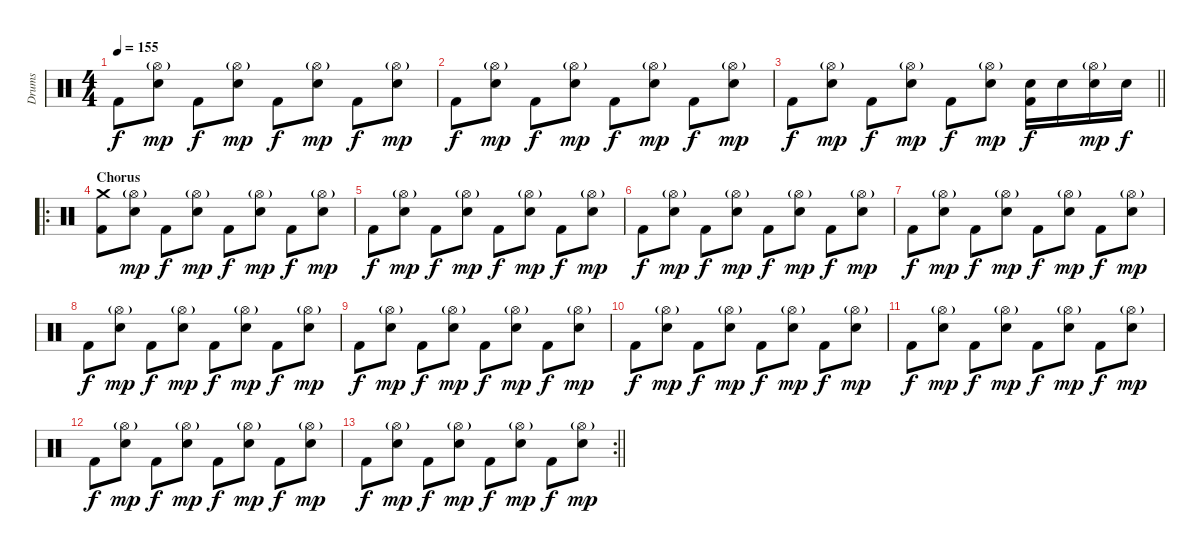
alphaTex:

\track ("Drums" "Drums") {instrument percussion}
\staff {score}
\articulation defaults
\ts (4 4)
\tempo 155
\clef neutral
\ks c "Kick (hit) 2".8{dy f}
("Snare (hit) 2" "Hi-Hat (open)"{g}).8{dy mp} "Kick (hit) 2".8{dy f} ("Snare (hit) 2" "Hi-Hat (open)"{g}).8{dy mp} "Kick (hit) 2".8{dy f} ("Snare (hit) 2" "Hi-Hat (open)"{g}).8{dy mp} "Kick (hit) 2".8{dy f} ("Snare (hit) 2" "Hi-Hat (open)"{g}).8{dy mp} |
"Kick (hit) 2".8{dy f} ("Snare (hit) 2" "Hi-Hat (open)"{g}).8{dy mp} "Kick (hit) 2".8{dy f} ("Snare (hit) 2" "Hi-Hat (open)"{g}).8{dy mp} "Kick (hit) 2".8{dy f} ("Snare (hit) 2" "Hi-Hat (open)"{g}).8{dy mp} "Kick (hit) 2".8{dy f} ("Snare (hit) 2" "Hi-Hat (open)"{g}).8{dy mp} |
\barLineRight lightlight "Kick (hit) 2".8{dy f}
("Snare (hit) 2" "Hi-Hat (open)"{g}).8{dy mp} "Kick (hit) 2".8{dy f} ("Snare (hit) 2" "Hi-Hat (open)"{g}).8{dy mp} "Kick (hit) 2".8{dy f} ("Snare (hit) 2" "Hi-Hat (open)"{g}).8{dy mp} ("Kick (hit) 2" "Snare (hit) 2").16{dy f} "Snare (hit) 2".16 ("Snare (hit) 2" "Hi-Hat (open)"{g}).16{dy mp} "Snare (hit) 2".16{dy f} |
\ro
\section ("" "Chorus")
("Kick (hit) 2" "Crash medium (hit)").8 ("Snare (hit) 2" "Hi-Hat (open)"{g}).8{dy mp} "Kick (hit) 2".8{dy f} ("Snare (hit) 2" "Hi-Hat (open)"{g}).8{dy mp} "Kick (hit) 2".8{dy f} ("Snare (hit) 2" "Hi-Hat (open)"{g}).8{dy mp} "Kick (hit) 2".8{dy f} ("Snare (hit) 2" "Hi-Hat (open)"{g}).8{dy mp} |
"Kick (hit) 2".8{dy f} ("Snare (hit) 2" "Hi-Hat (open)"{g}).8{dy mp} "Kick (hit) 2".8{dy f} ("Snare (hit) 2" "Hi-Hat (open)"{g}).8{dy mp} "Kick (hit) 2".8{dy f} ("Snare (hit) 2" "Hi-Hat (open)"{g}).8{dy mp} "Kick (hit) 2".8{dy f} ("Snare (hit) 2" "Hi-Hat (open)"{g}).8{dy mp} |
"Kick (hit) 2".8{dy f} ("Snare (hit) 2" "Hi-Hat (open)"{g}).8{dy mp} "Kick (hit) 2".8{dy f} ("Snare (hit) 2" "Hi-Hat (open)"{g}).8{dy mp} "Kick (hit) 2".8{dy f} ("Snare (hit) 2" "Hi-Hat (open)"{g}).8{dy mp} "Kick (hit) 2".8{dy f} ("Snare (hit) 2" "Hi-Hat (open)"{g}).8{dy mp} |
"Kick (hit) 2".8{dy f} ("Snare (hit) 2" "Hi-Hat (open)"{g}).8{dy mp} "Kick (hit) 2".8{dy f} ("Snare (hit) 2" "Hi-Hat (open)"{g}).8{dy mp} "Kick (hit) 2".8{dy f} ("Snare (hit) 2" "Hi-Hat (open)"{g}).8{dy mp} "Kick (hit) 2".8{dy f} ("Snare (hit) 2" "Hi-Hat (open)"{g}).8{dy mp} |
"Kick (hit) 2".8{dy f} ("Snare (hit) 2" "Hi-Hat (open)"{g}).8{dy mp} "Kick (hit) 2".8{dy f} ("Snare (hit) 2" "Hi-Hat (open)"{g}).8{dy mp} "Kick (hit) 2".8{dy f} ("Snare (hit) 2" "Hi-Hat (open)"{g}).8{dy mp} "Kick (hit) 2".8{dy f} ("Snare (hit) 2" "Hi-Hat (open)"{g}).8{dy mp} |
"Kick (hit) 2".8{dy f} ("Snare (hit) 2" "Hi-Hat (open)"{g}).8{dy mp} "Kick (hit) 2".8{dy f} ("Snare (hit) 2" "Hi-Hat (open)"{g}).8{dy mp} "Kick (hit) 2".8{dy f} ("Snare (hit) 2" "Hi-Hat (open)"{g}).8{dy mp} "Kick (hit) 2".8{dy f} ("Snare (hit) 2" "Hi-Hat (open)"{g}).8{dy mp} |
"Kick (hit) 2".8{dy f} ("Snare (hit) 2" "Hi-Hat (open)"{g}).8{dy mp} "Kick (hit) 2".8{dy f} ("Snare (hit) 2" "Hi-Hat (open)"{g}).8{dy mp} "Kick (hit) 2".8{dy f} ("Snare (hit) 2" "Hi-Hat (open)"{g}).8{dy mp} "Kick (hit) 2".8{dy f} ("Snare (hit) 2" "Hi-Hat (open)"{g}).8{dy mp} |
"Kick (hit) 2".8{dy f} ("Snare (hit) 2" "Hi-Hat (open)"{g}).8{dy mp} "Kick (hit) 2".8{dy f} ("Snare (hit) 2" "Hi-Hat (open)"{g}).8{dy mp} "Kick (hit) 2".8{dy f} ("Snare (hit) 2" "Hi-Hat (open)"{g}).8{dy mp} "Kick (hit) 2".8{dy f} ("Snare (hit) 2" "Hi-Hat (open)"{g}).8{dy mp} |
"Kick (hit) 2".8{dy f} ("Snare (hit) 2" "Hi-Hat (open)"{g}).8{dy mp} "Kick (hit) 2".8{dy f} ("Snare (hit) 2" "Hi-Hat (open)"{g}).8{dy mp} "Kick (hit) 2".8{dy f} ("Snare (hit) 2" "Hi-Hat (open)"{g}).8{dy mp} "Kick (hit) 2".8{dy f} ("Snare (hit) 2" "Hi-Hat (open)"{g}).8{dy mp} |
\rc 2
\barLineRight lightlight "Kick (hit) 2".8{dy f}
("Snare (hit) 2" "Hi-Hat (open)"{g}).8{dy mp} "Kick (hit) 2".8{dy f} ("Snare (hit) 2" "Hi-Hat (open)"{g}).8{dy mp} "Kick (hit) 2".8{dy f} ("Snare (hit) 2" "Hi-Hat (open)"{g}).8{dy mp} "Kick (hit) 2".8{dy f} ("Snare (hit) 2" "Hi-Hat (open)"{g}).8{dy mp}
